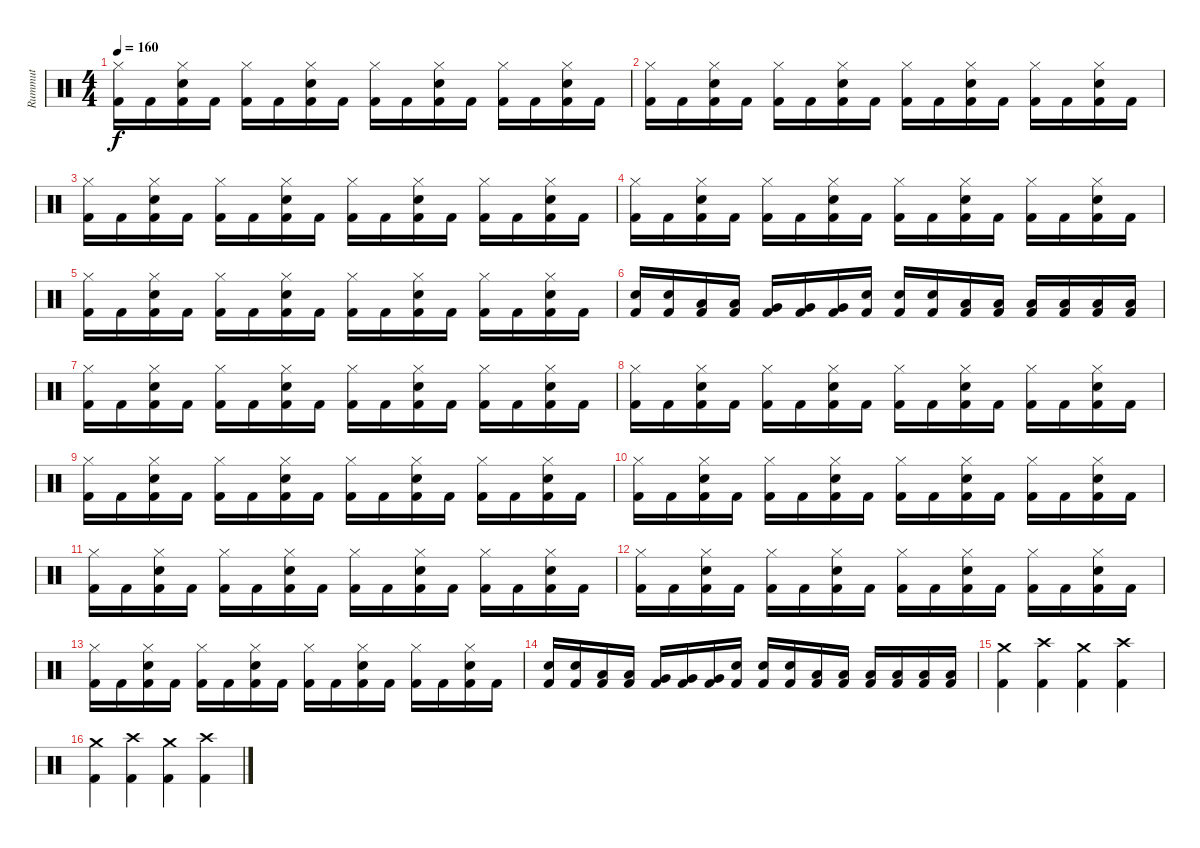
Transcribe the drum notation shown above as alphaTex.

\track ("Rummut" "Rummut") {instrument percussion}
\staff {score}
\articulation defaults
\ts (4 4)
\tempo 160
\clef neutral
\ks c
("Hi-Hat (closed)" "Kick (hit) 2").16{dy f} "Kick (hit) 2".16 ("Hi-Hat (closed)" "Snare (hit) 2" "Kick (hit) 2").16 "Kick (hit) 2".16 ("Hi-Hat (closed)" "Kick (hit) 2").16 "Kick (hit) 2".16 ("Hi-Hat (closed)" "Snare (hit) 2" "Kick (hit) 2").16 "Kick (hit) 2".16 ("Hi-Hat (closed)" "Kick (hit) 2").16 "Kick (hit) 2".16 ("Hi-Hat (closed)" "Snare (hit) 2" "Kick (hit) 2").16 "Kick (hit) 2".16 ("Hi-Hat (closed)" "Kick (hit) 2").16 "Kick (hit) 2".16 ("Hi-Hat (closed)" "Snare (hit) 2" "Kick (hit) 2").16 "Kick (hit) 2".16 |
("Hi-Hat (closed)" "Kick (hit) 2").16 "Kick (hit) 2".16 ("Hi-Hat (closed)" "Snare (hit) 2" "Kick (hit) 2").16 "Kick (hit) 2".16 ("Hi-Hat (closed)" "Kick (hit) 2").16 "Kick (hit) 2".16 ("Hi-Hat (closed)" "Snare (hit) 2" "Kick (hit) 2").16 "Kick (hit) 2".16 ("Hi-Hat (closed)" "Kick (hit) 2").16 "Kick (hit) 2".16 ("Hi-Hat (closed)" "Snare (hit) 2" "Kick (hit) 2").16 "Kick (hit) 2".16 ("Hi-Hat (closed)" "Kick (hit) 2").16 "Kick (hit) 2".16 ("Hi-Hat (closed)" "Snare (hit) 2" "Kick (hit) 2").16 "Kick (hit) 2".16 |
("Hi-Hat (closed)" "Kick (hit) 2").16 "Kick (hit) 2".16 ("Hi-Hat (closed)" "Snare (hit) 2" "Kick (hit) 2").16 "Kick (hit) 2".16 ("Hi-Hat (closed)" "Kick (hit) 2").16 "Kick (hit) 2".16 ("Hi-Hat (closed)" "Snare (hit) 2" "Kick (hit) 2").16 "Kick (hit) 2".16 ("Hi-Hat (closed)" "Kick (hit) 2").16 "Kick (hit) 2".16 ("Hi-Hat (closed)" "Snare (hit) 2" "Kick (hit) 2").16 "Kick (hit) 2".16 ("Hi-Hat (closed)" "Kick (hit) 2").16 "Kick (hit) 2".16 ("Hi-Hat (closed)" "Snare (hit) 2" "Kick (hit) 2").16 "Kick (hit) 2".16 |
("Hi-Hat (closed)" "Kick (hit) 2").16 "Kick (hit) 2".16 ("Hi-Hat (closed)" "Snare (hit) 2" "Kick (hit) 2").16 "Kick (hit) 2".16 ("Hi-Hat (closed)" "Kick (hit) 2").16 "Kick (hit) 2".16 ("Hi-Hat (closed)" "Snare (hit) 2" "Kick (hit) 2").16 "Kick (hit) 2".16 ("Hi-Hat (closed)" "Kick (hit) 2").16 "Kick (hit) 2".16 ("Hi-Hat (closed)" "Snare (hit) 2" "Kick (hit) 2").16 "Kick (hit) 2".16 ("Hi-Hat (closed)" "Kick (hit) 2").16 "Kick (hit) 2".16 ("Hi-Hat (closed)" "Snare (hit) 2" "Kick (hit) 2").16 "Kick (hit) 2".16 |
("Hi-Hat (closed)" "Kick (hit) 2").16 "Kick (hit) 2".16 ("Hi-Hat (closed)" "Snare (hit) 2" "Kick (hit) 2").16 "Kick (hit) 2".16 ("Hi-Hat (closed)" "Kick (hit) 2").16 "Kick (hit) 2".16 ("Hi-Hat (closed)" "Snare (hit) 2" "Kick (hit) 2").16 "Kick (hit) 2".16 ("Hi-Hat (closed)" "Kick (hit) 2").16 "Kick (hit) 2".16 ("Hi-Hat (closed)" "Snare (hit) 2" "Kick (hit) 2").16 "Kick (hit) 2".16 ("Hi-Hat (closed)" "Kick (hit) 2").16 "Kick (hit) 2".16 ("Hi-Hat (closed)" "Snare (hit) 2" "Kick (hit) 2").16 "Kick (hit) 2".16 |
("Electric Snare (hit)" "Kick (hit) 2").16 ("Electric Snare (hit)" "Kick (hit) 2").16 ("Low Tom (hit)" "Kick (hit) 2").16 ("Low Tom (hit)" "Kick (hit) 2").16 ("Very Low Tom (hit)" "Kick (hit) 2").16 ("Very Low Tom (hit)" "Kick (hit) 2").16 ("Very Low Tom (hit)" "Kick (hit) 2").16 ("Electric Snare (hit)" "Kick (hit) 2").16 ("Electric Snare (hit)" "Kick (hit) 2").16 ("Electric Snare (hit)" "Kick (hit) 2").16 ("Low Floor Tom (hit)" "Kick (hit) 2").16 ("Low Floor Tom (hit)" "Kick (hit) 2").16 ("Low Floor Tom (hit)" "Kick (hit) 2").16 ("Low Floor Tom (hit)" "Kick (hit) 2").16 ("Low Floor Tom (hit)" "Kick (hit) 2").16 ("Low Floor Tom (hit)" "Kick (hit) 2").16 |
("Hi-Hat (closed)" "Kick (hit) 2").16 "Kick (hit) 2".16 ("Hi-Hat (closed)" "Snare (hit) 2" "Kick (hit) 2").16 "Kick (hit) 2".16 ("Hi-Hat (closed)" "Kick (hit) 2").16 "Kick (hit) 2".16 ("Hi-Hat (closed)" "Snare (hit) 2" "Kick (hit) 2").16 "Kick (hit) 2".16 ("Hi-Hat (closed)" "Kick (hit) 2").16 "Kick (hit) 2".16 ("Hi-Hat (closed)" "Snare (hit) 2" "Kick (hit) 2").16 "Kick (hit) 2".16 ("Hi-Hat (closed)" "Kick (hit) 2").16 "Kick (hit) 2".16 ("Hi-Hat (closed)" "Snare (hit) 2" "Kick (hit) 2").16 "Kick (hit) 2".16 |
("Hi-Hat (closed)" "Kick (hit) 2").16 "Kick (hit) 2".16 ("Hi-Hat (closed)" "Snare (hit) 2" "Kick (hit) 2").16 "Kick (hit) 2".16 ("Hi-Hat (closed)" "Kick (hit) 2").16 "Kick (hit) 2".16 ("Hi-Hat (closed)" "Snare (hit) 2" "Kick (hit) 2").16 "Kick (hit) 2".16 ("Hi-Hat (closed)" "Kick (hit) 2").16 "Kick (hit) 2".16 ("Hi-Hat (closed)" "Snare (hit) 2" "Kick (hit) 2").16 "Kick (hit) 2".16 ("Hi-Hat (closed)" "Kick (hit) 2").16 "Kick (hit) 2".16 ("Hi-Hat (closed)" "Snare (hit) 2" "Kick (hit) 2").16 "Kick (hit) 2".16 |
("Hi-Hat (closed)" "Kick (hit) 2").16 "Kick (hit) 2".16 ("Hi-Hat (closed)" "Snare (hit) 2" "Kick (hit) 2").16 "Kick (hit) 2".16 ("Hi-Hat (closed)" "Kick (hit) 2").16 "Kick (hit) 2".16 ("Hi-Hat (closed)" "Snare (hit) 2" "Kick (hit) 2").16 "Kick (hit) 2".16 ("Hi-Hat (closed)" "Kick (hit) 2").16 "Kick (hit) 2".16 ("Hi-Hat (closed)" "Snare (hit) 2" "Kick (hit) 2").16 "Kick (hit) 2".16 ("Hi-Hat (closed)" "Kick (hit) 2").16 "Kick (hit) 2".16 ("Hi-Hat (closed)" "Snare (hit) 2" "Kick (hit) 2").16 "Kick (hit) 2".16 |
("Hi-Hat (closed)" "Kick (hit) 2").16 "Kick (hit) 2".16 ("Hi-Hat (closed)" "Snare (hit) 2" "Kick (hit) 2").16 "Kick (hit) 2".16 ("Hi-Hat (closed)" "Kick (hit) 2").16 "Kick (hit) 2".16 ("Hi-Hat (closed)" "Snare (hit) 2" "Kick (hit) 2").16 "Kick (hit) 2".16 ("Hi-Hat (closed)" "Kick (hit) 2").16 "Kick (hit) 2".16 ("Hi-Hat (closed)" "Snare (hit) 2" "Kick (hit) 2").16 "Kick (hit) 2".16 ("Hi-Hat (closed)" "Kick (hit) 2").16 "Kick (hit) 2".16 ("Hi-Hat (closed)" "Snare (hit) 2" "Kick (hit) 2").16 "Kick (hit) 2".16 |
("Hi-Hat (closed)" "Kick (hit) 2").16 "Kick (hit) 2".16 ("Hi-Hat (closed)" "Snare (hit) 2" "Kick (hit) 2").16 "Kick (hit) 2".16 ("Hi-Hat (closed)" "Kick (hit) 2").16 "Kick (hit) 2".16 ("Hi-Hat (closed)" "Snare (hit) 2" "Kick (hit) 2").16 "Kick (hit) 2".16 ("Hi-Hat (closed)" "Kick (hit) 2").16 "Kick (hit) 2".16 ("Hi-Hat (closed)" "Snare (hit) 2" "Kick (hit) 2").16 "Kick (hit) 2".16 ("Hi-Hat (closed)" "Kick (hit) 2").16 "Kick (hit) 2".16 ("Hi-Hat (closed)" "Snare (hit) 2" "Kick (hit) 2").16 "Kick (hit) 2".16 |
("Hi-Hat (closed)" "Kick (hit) 2").16 "Kick (hit) 2".16 ("Hi-Hat (closed)" "Snare (hit) 2" "Kick (hit) 2").16 "Kick (hit) 2".16 ("Hi-Hat (closed)" "Kick (hit) 2").16 "Kick (hit) 2".16 ("Hi-Hat (closed)" "Snare (hit) 2" "Kick (hit) 2").16 "Kick (hit) 2".16 ("Hi-Hat (closed)" "Kick (hit) 2").16 "Kick (hit) 2".16 ("Hi-Hat (closed)" "Snare (hit) 2" "Kick (hit) 2").16 "Kick (hit) 2".16 ("Hi-Hat (closed)" "Kick (hit) 2").16 "Kick (hit) 2".16 ("Hi-Hat (closed)" "Snare (hit) 2" "Kick (hit) 2").16 "Kick (hit) 2".16 |
("Hi-Hat (closed)" "Kick (hit) 2").16 "Kick (hit) 2".16 ("Hi-Hat (closed)" "Snare (hit) 2" "Kick (hit) 2").16 "Kick (hit) 2".16 ("Hi-Hat (closed)" "Kick (hit) 2").16 "Kick (hit) 2".16 ("Hi-Hat (closed)" "Snare (hit) 2" "Kick (hit) 2").16 "Kick (hit) 2".16 ("Hi-Hat (closed)" "Kick (hit) 2").16 "Kick (hit) 2".16 ("Hi-Hat (closed)" "Snare (hit) 2" "Kick (hit) 2").16 "Kick (hit) 2".16 ("Hi-Hat (closed)" "Kick (hit) 2").16 "Kick (hit) 2".16 ("Hi-Hat (closed)" "Snare (hit) 2" "Kick (hit) 2").16 "Kick (hit) 2".16 |
("Electric Snare (hit)" "Kick (hit) 2").16 ("Electric Snare (hit)" "Kick (hit) 2").16 ("Low Tom (hit)" "Kick (hit) 2").16 ("Low Tom (hit)" "Kick (hit) 2").16 ("Very Low Tom (hit)" "Kick (hit) 2").16 ("Very Low Tom (hit)" "Kick (hit) 2").16 ("Very Low Tom (hit)" "Kick (hit) 2").16 ("Electric Snare (hit)" "Kick (hit) 2").16 ("Electric Snare (hit)" "Kick (hit) 2").16 ("Electric Snare (hit)" "Kick (hit) 2").16 ("Low Floor Tom (hit)" "Kick (hit) 2").16 ("Low Floor Tom (hit)" "Kick (hit) 2").16 ("Low Floor Tom (hit)" "Kick (hit) 2").16 ("Low Floor Tom (hit)" "Kick (hit) 2").16 ("Low Floor Tom (hit)" "Kick (hit) 2").16 ("Low Floor Tom (hit)" "Kick (hit) 2").16 |
("Crash medium (hit)" "Kick (hit) 2").4 ("Crash high (hit)" "Kick (hit) 2").4 ("Crash medium (hit)" "Kick (hit) 2").4 ("Crash high (hit)" "Kick (hit) 2").4 |
("Crash medium (hit)" "Kick (hit) 2").4 ("Crash high (hit)" "Kick (hit) 2").4 ("Crash medium (hit)" "Kick (hit) 2").4 ("Crash high (hit)" "Kick (hit) 2").4
